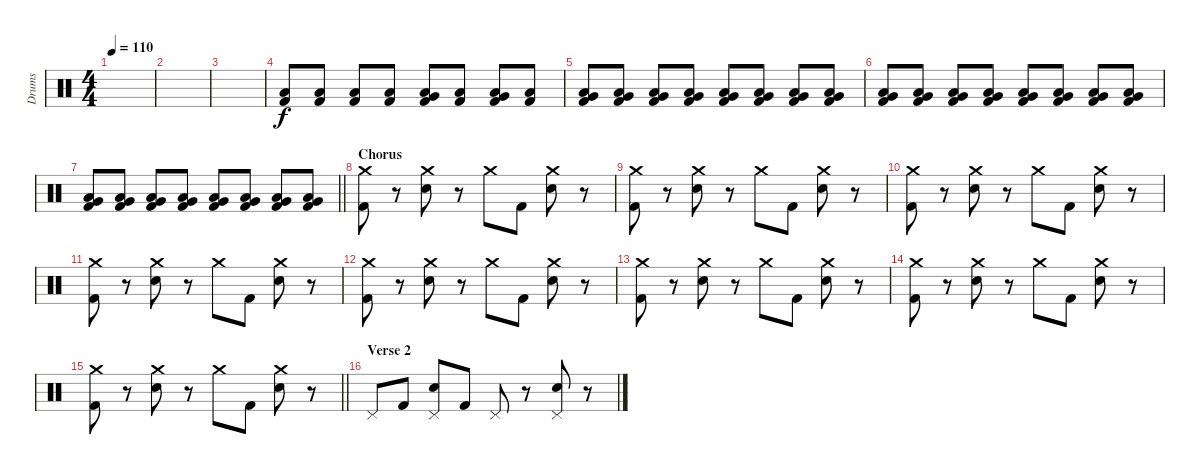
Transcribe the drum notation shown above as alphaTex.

\track ("Drums" "Drums") {instrument percussion}
\staff {score}
\articulation defaults
\ts (4 4)
\tempo 110
\clef neutral
\ks c
|
|
|
("Low Floor Tom (hit)" "Kick (hit) 2").8 ("Low Floor Tom (hit)" "Kick (hit) 2").8 ("Low Floor Tom (hit)" "Kick (hit) 2").8 ("Low Floor Tom (hit)" "Kick (hit) 2").8 ("Very Low Tom (hit)" "Low Floor Tom (hit)" "Kick (hit) 2").8 ("Low Floor Tom (hit)" "Kick (hit) 2").8 ("Very Low Tom (hit)" "Low Floor Tom (hit)" "Kick (hit) 2").8 ("Low Floor Tom (hit)" "Kick (hit) 2").8 |
("Very Low Tom (hit)" "Low Floor Tom (hit)" "Kick (hit) 2").8 ("Very Low Tom (hit)" "Low Floor Tom (hit)" "Kick (hit) 2").8 ("Very Low Tom (hit)" "Low Floor Tom (hit)" "Kick (hit) 2").8 ("Very Low Tom (hit)" "Low Floor Tom (hit)" "Kick (hit) 2").8 ("Very Low Tom (hit)" "Low Floor Tom (hit)" "Kick (hit) 2").8 ("Very Low Tom (hit)" "Low Floor Tom (hit)" "Kick (hit) 2").8 ("Very Low Tom (hit)" "Low Floor Tom (hit)" "Kick (hit) 2").8 ("Very Low Tom (hit)" "Low Floor Tom (hit)" "Kick (hit) 2").8 |
("Very Low Tom (hit)" "Low Floor Tom (hit)" "Kick (hit) 2").8 ("Very Low Tom (hit)" "Low Floor Tom (hit)" "Kick (hit) 2").8 ("Very Low Tom (hit)" "Low Floor Tom (hit)" "Kick (hit) 2").8 ("Very Low Tom (hit)" "Low Floor Tom (hit)" "Kick (hit) 2").8 ("Very Low Tom (hit)" "Low Floor Tom (hit)" "Kick (hit) 2").8 ("Very Low Tom (hit)" "Low Floor Tom (hit)" "Kick (hit) 2").8 ("Very Low Tom (hit)" "Low Floor Tom (hit)" "Kick (hit) 2").8 ("Very Low Tom (hit)" "Low Floor Tom (hit)" "Kick (hit) 2").8 |
\barLineRight lightlight
("Very Low Tom (hit)" "Low Floor Tom (hit)" "Kick (hit) 2").8 ("Very Low Tom (hit)" "Low Floor Tom (hit)" "Kick (hit) 2").8 ("Very Low Tom (hit)" "Low Floor Tom (hit)" "Kick (hit) 2").8 ("Very Low Tom (hit)" "Low Floor Tom (hit)" "Kick (hit) 2").8 ("Very Low Tom (hit)" "Low Floor Tom (hit)" "Kick (hit) 2").8 ("Very Low Tom (hit)" "Low Floor Tom (hit)" "Kick (hit) 2").8 ("Very Low Tom (hit)" "Low Floor Tom (hit)" "Kick (hit) 2").8 ("Very Low Tom (hit)" "Low Floor Tom (hit)" "Kick (hit) 2").8 |
\section ("" "Chorus")
("Crash medium (hit)" "Kick (hit) 2").8 r.8 ("Crash medium (hit)" "Electric Snare (hit)").8 r.8 "Crash medium (hit)".8 "Kick (hit) 2".8 ("Crash medium (hit)" "Electric Snare (hit)").8 r.8 |
("Crash medium (hit)" "Kick (hit) 2").8 r.8 ("Crash medium (hit)" "Electric Snare (hit)").8 r.8 "Crash medium (hit)".8 "Kick (hit) 2".8 ("Crash medium (hit)" "Electric Snare (hit)").8 r.8 |
("Crash medium (hit)" "Kick (hit) 2").8 r.8 ("Crash medium (hit)" "Electric Snare (hit)").8 r.8 "Crash medium (hit)".8 "Kick (hit) 2".8 ("Crash medium (hit)" "Electric Snare (hit)").8 r.8 |
("Crash medium (hit)" "Kick (hit) 2").8 r.8 ("Crash medium (hit)" "Electric Snare (hit)").8 r.8 "Crash medium (hit)".8 "Kick (hit) 2".8 ("Crash medium (hit)" "Electric Snare (hit)").8 r.8 |
("Crash medium (hit)" "Kick (hit) 2").8 r.8 ("Crash medium (hit)" "Electric Snare (hit)").8 r.8 "Crash medium (hit)".8 "Kick (hit) 2".8 ("Crash medium (hit)" "Electric Snare (hit)").8 r.8 |
("Crash medium (hit)" "Kick (hit) 2").8 r.8 ("Crash medium (hit)" "Electric Snare (hit)").8 r.8 "Crash medium (hit)".8 "Kick (hit) 2".8 ("Crash medium (hit)" "Electric Snare (hit)").8 r.8 |
("Crash medium (hit)" "Kick (hit) 2").8 r.8 ("Crash medium (hit)" "Electric Snare (hit)").8 r.8 "Crash medium (hit)".8 "Kick (hit) 2".8 ("Crash medium (hit)" "Electric Snare (hit)").8 r.8 |
\barLineRight lightlight
("Crash medium (hit)" "Kick (hit) 2").8 r.8 ("Crash medium (hit)" "Electric Snare (hit)").8 r.8 "Crash medium (hit)".8 "Kick (hit) 2".8 ("Crash medium (hit)" "Electric Snare (hit)").8 r.8 |
\section ("" "Verse 2")
"Pedal Hi-Hat (hit)".8 "Kick (hit) 2".8 ("Pedal Hi-Hat (hit)" "Electric Snare (hit)").8 "Kick (hit) 2".8 "Pedal Hi-Hat (hit)".8 r.8 ("Pedal Hi-Hat (hit)" "Electric Snare (hit)").8 r.8
